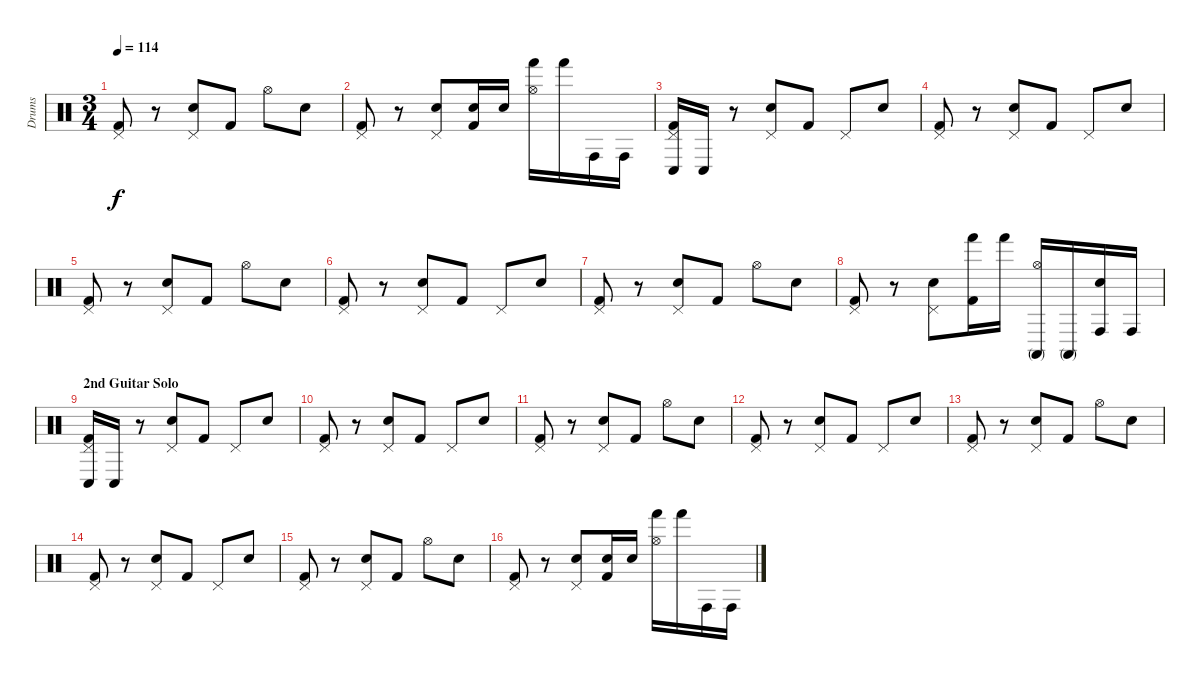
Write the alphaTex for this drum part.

\track ("Drums" "Drums") {instrument percussion}
\staff {score}
\articulation defaults
\ts (3 4)
\tempo 114
\clef neutral
\ks c
("Kick (hit) 2" "Pedal Hi-Hat (hit)").8{dy f} r.8 ("Electric Snare (hit)" "Pedal Hi-Hat (hit)").8 "Kick (hit) 2".8 "Hi-Hat (open)".8 "Electric Snare (hit)".8 |
("Kick (hit) 2" "Pedal Hi-Hat (hit)").8 r.8 ("Pedal Hi-Hat (hit)" "Electric Snare (hit)").8 ("Kick (hit) 2" "Electric Snare (hit)").16 "Electric Snare (hit)".16 ("Hand (hit)" "Hi-Hat (open)").16 "Hand (hit)".16 "Conga high (hit)".16 "Conga high (hit)".16 |
("Kick (hit) 2" "Pedal Hi-Hat (hit)" "Conga low (hit)").16 "Conga low (hit)".16 r.8 ("Electric Snare (hit)" "Pedal Hi-Hat (hit)").8 "Kick (hit) 2".8 "Pedal Hi-Hat (hit)".8 "Electric Snare (hit)".8 |
("Kick (hit) 2" "Pedal Hi-Hat (hit)").8 r.8 ("Electric Snare (hit)" "Pedal Hi-Hat (hit)").8 "Kick (hit) 2".8 "Pedal Hi-Hat (hit)".8 "Electric Snare (hit)".8 |
("Kick (hit) 2" "Pedal Hi-Hat (hit)").8 r.8 ("Electric Snare (hit)" "Pedal Hi-Hat (hit)").8 "Kick (hit) 2".8 "Hi-Hat (open)".8 "Electric Snare (hit)".8 |
("Pedal Hi-Hat (hit)" "Kick (hit) 2").8 r.8 ("Electric Snare (hit)" "Pedal Hi-Hat (hit)").8 "Kick (hit) 2".8 "Pedal Hi-Hat (hit)".8 "Electric Snare (hit)".8 |
("Kick (hit) 2" "Pedal Hi-Hat (hit)").8 r.8 ("Electric Snare (hit)" "Pedal Hi-Hat (hit)").8 "Kick (hit) 2".8 "Hi-Hat (open)".8 "Electric Snare (hit)".8 |
("Pedal Hi-Hat (hit)" "Kick (hit) 2").8 r.8 ("Pedal Hi-Hat (hit)" "Electric Snare (hit)").8 ("Kick (hit) 2" "Hand (hit)").16 "Hand (hit)".16 ("Hi-Hat (open)" "Conga high (mute)").16 "Conga high (mute)".16 ("Conga high (hit)" "Electric Snare (hit)").16 "Conga high (hit)".16 |
\section ("" "2nd Guitar Solo")
("Kick (hit) 2" "Pedal Hi-Hat (hit)" "Conga low (hit)").16 "Conga low (hit)".16 r.8 ("Electric Snare (hit)" "Pedal Hi-Hat (hit)").8 "Kick (hit) 2".8 "Pedal Hi-Hat (hit)".8 "Electric Snare (hit)".8 |
("Kick (hit) 2" "Pedal Hi-Hat (hit)").8 r.8 ("Electric Snare (hit)" "Pedal Hi-Hat (hit)").8 "Kick (hit) 2".8 "Pedal Hi-Hat (hit)".8 "Electric Snare (hit)".8 |
("Kick (hit) 2" "Pedal Hi-Hat (hit)").8 r.8 ("Electric Snare (hit)" "Pedal Hi-Hat (hit)").8 "Kick (hit) 2".8 "Hi-Hat (open)".8 "Electric Snare (hit)".8 |
("Pedal Hi-Hat (hit)" "Kick (hit) 2").8 r.8 ("Electric Snare (hit)" "Pedal Hi-Hat (hit)").8 "Kick (hit) 2".8 "Pedal Hi-Hat (hit)".8 "Electric Snare (hit)".8 |
("Kick (hit) 2" "Pedal Hi-Hat (hit)").8 r.8 ("Electric Snare (hit)" "Pedal Hi-Hat (hit)").8 "Kick (hit) 2".8 "Hi-Hat (open)".8 "Electric Snare (hit)".8 |
("Pedal Hi-Hat (hit)" "Kick (hit) 2").8 r.8 ("Electric Snare (hit)" "Pedal Hi-Hat (hit)").8 "Kick (hit) 2".8 "Pedal Hi-Hat (hit)".8 "Electric Snare (hit)".8 |
("Kick (hit) 2" "Pedal Hi-Hat (hit)").8 r.8 ("Electric Snare (hit)" "Pedal Hi-Hat (hit)").8 "Kick (hit) 2".8 "Hi-Hat (open)".8 "Electric Snare (hit)".8 |
("Pedal Hi-Hat (hit)" "Kick (hit) 2").8 r.8 ("Pedal Hi-Hat (hit)" "Electric Snare (hit)").8 ("Kick (hit) 2" "Electric Snare (hit)").16 "Electric Snare (hit)".16 ("Hand (hit)" "Hi-Hat (open)").16 "Hand (hit)".16 "Conga high (hit)".16 "Conga high (hit)".16
